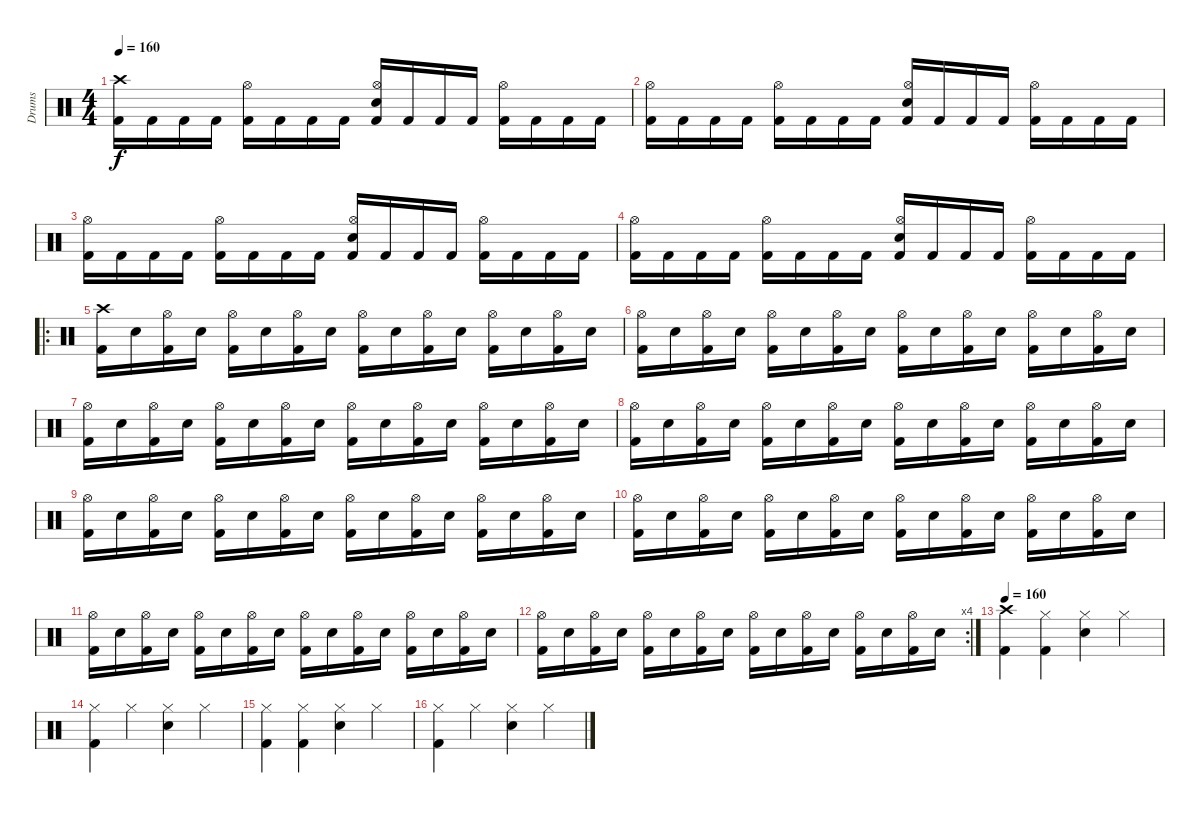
\track ("Drums" "Drums") {instrument percussion}
\staff {score}
\articulation defaults
\ts (4 4)
\tempo 160
\clef neutral
\ks c
("Crash high (hit)" "Kick (hit) 2").16{dy f} "Kick (hit) 2".16 "Kick (hit) 2".16 "Kick (hit) 2".16 ("Hi-Hat (open)" "Kick (hit) 2").16 "Kick (hit) 2".16 "Kick (hit) 2".16 "Kick (hit) 2".16 ("Hi-Hat (open)" "Snare (hit) 2" "Kick (hit) 2").16 "Kick (hit) 2".16 "Kick (hit) 2".16 "Kick (hit) 2".16 ("Hi-Hat (open)" "Kick (hit) 2").16 "Kick (hit) 2".16 "Kick (hit) 2".16 "Kick (hit) 2".16 |
("Hi-Hat (open)" "Kick (hit) 2").16 "Kick (hit) 2".16 "Kick (hit) 2".16 "Kick (hit) 2".16 ("Hi-Hat (open)" "Kick (hit) 2").16 "Kick (hit) 2".16 "Kick (hit) 2".16 "Kick (hit) 2".16 ("Hi-Hat (open)" "Snare (hit) 2" "Kick (hit) 2").16 "Kick (hit) 2".16 "Kick (hit) 2".16 "Kick (hit) 2".16 ("Hi-Hat (open)" "Kick (hit) 2").16 "Kick (hit) 2".16 "Kick (hit) 2".16 "Kick (hit) 2".16 |
("Hi-Hat (open)" "Kick (hit) 2").16 "Kick (hit) 2".16 "Kick (hit) 2".16 "Kick (hit) 2".16 ("Hi-Hat (open)" "Kick (hit) 2").16 "Kick (hit) 2".16 "Kick (hit) 2".16 "Kick (hit) 2".16 ("Hi-Hat (open)" "Snare (hit) 2" "Kick (hit) 2").16 "Kick (hit) 2".16 "Kick (hit) 2".16 "Kick (hit) 2".16 ("Hi-Hat (open)" "Kick (hit) 2").16 "Kick (hit) 2".16 "Kick (hit) 2".16 "Kick (hit) 2".16 |
("Hi-Hat (open)" "Kick (hit) 2").16 "Kick (hit) 2".16 "Kick (hit) 2".16 "Kick (hit) 2".16 ("Hi-Hat (open)" "Kick (hit) 2").16 "Kick (hit) 2".16 "Kick (hit) 2".16 "Kick (hit) 2".16 ("Hi-Hat (open)" "Snare (hit) 2" "Kick (hit) 2").16 "Kick (hit) 2".16 "Kick (hit) 2".16 "Kick (hit) 2".16 ("Hi-Hat (open)" "Kick (hit) 2").16 "Kick (hit) 2".16 "Kick (hit) 2".16 "Kick (hit) 2".16 |
\ro
("Crash high (hit)" "Kick (hit) 2").16 "Snare (hit) 2".16 ("Hi-Hat (open)" "Kick (hit) 2").16 "Snare (hit) 2".16 ("Hi-Hat (open)" "Kick (hit) 2").16 "Snare (hit) 2".16 ("Hi-Hat (open)" "Kick (hit) 2").16 "Snare (hit) 2".16 ("Hi-Hat (open)" "Kick (hit) 2").16 "Snare (hit) 2".16 ("Hi-Hat (open)" "Kick (hit) 2").16 "Snare (hit) 2".16 ("Hi-Hat (open)" "Kick (hit) 2").16 "Snare (hit) 2".16 ("Hi-Hat (open)" "Kick (hit) 2").16 "Snare (hit) 2".16 |
("Hi-Hat (open)" "Kick (hit) 2").16 "Snare (hit) 2".16 ("Hi-Hat (open)" "Kick (hit) 2").16 "Snare (hit) 2".16 ("Hi-Hat (open)" "Kick (hit) 2").16 "Snare (hit) 2".16 ("Hi-Hat (open)" "Kick (hit) 2").16 "Snare (hit) 2".16 ("Hi-Hat (open)" "Kick (hit) 2").16 "Snare (hit) 2".16 ("Hi-Hat (open)" "Kick (hit) 2").16 "Snare (hit) 2".16 ("Hi-Hat (open)" "Kick (hit) 2").16 "Snare (hit) 2".16 ("Hi-Hat (open)" "Kick (hit) 2").16 "Snare (hit) 2".16 |
("Hi-Hat (open)" "Kick (hit) 2").16 "Snare (hit) 2".16 ("Hi-Hat (open)" "Kick (hit) 2").16 "Snare (hit) 2".16 ("Hi-Hat (open)" "Kick (hit) 2").16 "Snare (hit) 2".16 ("Hi-Hat (open)" "Kick (hit) 2").16 "Snare (hit) 2".16 ("Hi-Hat (open)" "Kick (hit) 2").16 "Snare (hit) 2".16 ("Hi-Hat (open)" "Kick (hit) 2").16 "Snare (hit) 2".16 ("Hi-Hat (open)" "Kick (hit) 2").16 "Snare (hit) 2".16 ("Hi-Hat (open)" "Kick (hit) 2").16 "Snare (hit) 2".16 |
("Hi-Hat (open)" "Kick (hit) 2").16 "Snare (hit) 2".16 ("Hi-Hat (open)" "Kick (hit) 2").16 "Snare (hit) 2".16 ("Hi-Hat (open)" "Kick (hit) 2").16 "Snare (hit) 2".16 ("Hi-Hat (open)" "Kick (hit) 2").16 "Snare (hit) 2".16 ("Hi-Hat (open)" "Kick (hit) 2").16 "Snare (hit) 2".16 ("Hi-Hat (open)" "Kick (hit) 2").16 "Snare (hit) 2".16 ("Hi-Hat (open)" "Kick (hit) 2").16 "Snare (hit) 2".16 ("Hi-Hat (open)" "Kick (hit) 2").16 "Snare (hit) 2".16 |
("Hi-Hat (open)" "Kick (hit) 2").16 "Snare (hit) 2".16 ("Hi-Hat (open)" "Kick (hit) 2").16 "Snare (hit) 2".16 ("Hi-Hat (open)" "Kick (hit) 2").16 "Snare (hit) 2".16 ("Hi-Hat (open)" "Kick (hit) 2").16 "Snare (hit) 2".16 ("Hi-Hat (open)" "Kick (hit) 2").16 "Snare (hit) 2".16 ("Hi-Hat (open)" "Kick (hit) 2").16 "Snare (hit) 2".16 ("Hi-Hat (open)" "Kick (hit) 2").16 "Snare (hit) 2".16 ("Hi-Hat (open)" "Kick (hit) 2").16 "Snare (hit) 2".16 |
("Hi-Hat (open)" "Kick (hit) 2").16 "Snare (hit) 2".16 ("Hi-Hat (open)" "Kick (hit) 2").16 "Snare (hit) 2".16 ("Hi-Hat (open)" "Kick (hit) 2").16 "Snare (hit) 2".16 ("Hi-Hat (open)" "Kick (hit) 2").16 "Snare (hit) 2".16 ("Hi-Hat (open)" "Kick (hit) 2").16 "Snare (hit) 2".16 ("Hi-Hat (open)" "Kick (hit) 2").16 "Snare (hit) 2".16 ("Hi-Hat (open)" "Kick (hit) 2").16 "Snare (hit) 2".16 ("Hi-Hat (open)" "Kick (hit) 2").16 "Snare (hit) 2".16 |
("Hi-Hat (open)" "Kick (hit) 2").16 "Snare (hit) 2".16 ("Hi-Hat (open)" "Kick (hit) 2").16 "Snare (hit) 2".16 ("Hi-Hat (open)" "Kick (hit) 2").16 "Snare (hit) 2".16 ("Hi-Hat (open)" "Kick (hit) 2").16 "Snare (hit) 2".16 ("Hi-Hat (open)" "Kick (hit) 2").16 "Snare (hit) 2".16 ("Hi-Hat (open)" "Kick (hit) 2").16 "Snare (hit) 2".16 ("Hi-Hat (open)" "Kick (hit) 2").16 "Snare (hit) 2".16 ("Hi-Hat (open)" "Kick (hit) 2").16 "Snare (hit) 2".16 |
\rc 4
("Hi-Hat (open)" "Kick (hit) 2").16 "Snare (hit) 2".16 ("Hi-Hat (open)" "Kick (hit) 2").16 "Snare (hit) 2".16 ("Hi-Hat (open)" "Kick (hit) 2").16 "Snare (hit) 2".16 ("Hi-Hat (open)" "Kick (hit) 2").16 "Snare (hit) 2".16 ("Hi-Hat (open)" "Kick (hit) 2").16 "Snare (hit) 2".16 ("Hi-Hat (open)" "Kick (hit) 2").16 "Snare (hit) 2".16 ("Hi-Hat (open)" "Kick (hit) 2").16 "Snare (hit) 2".16 ("Hi-Hat (open)" "Kick (hit) 2").16 "Snare (hit) 2".16 |
\tempo 160
("Crash high (hit)" "Kick (hit) 2").4 ("Hi-Hat (closed)" "Kick (hit) 2").4 ("Hi-Hat (closed)" "Snare (hit) 2").4 "Hi-Hat (closed)".4 |
("Hi-Hat (closed)" "Kick (hit) 2").4 "Hi-Hat (closed)".4 ("Hi-Hat (closed)" "Snare (hit) 2").4 "Hi-Hat (closed)".4 |
("Hi-Hat (closed)" "Kick (hit) 2").4 ("Hi-Hat (closed)" "Kick (hit) 2").4 ("Hi-Hat (closed)" "Snare (hit) 2").4 "Hi-Hat (closed)".4 |
("Hi-Hat (closed)" "Kick (hit) 2").4 "Hi-Hat (closed)".4 ("Hi-Hat (closed)" "Snare (hit) 2").4 "Hi-Hat (closed)".4
